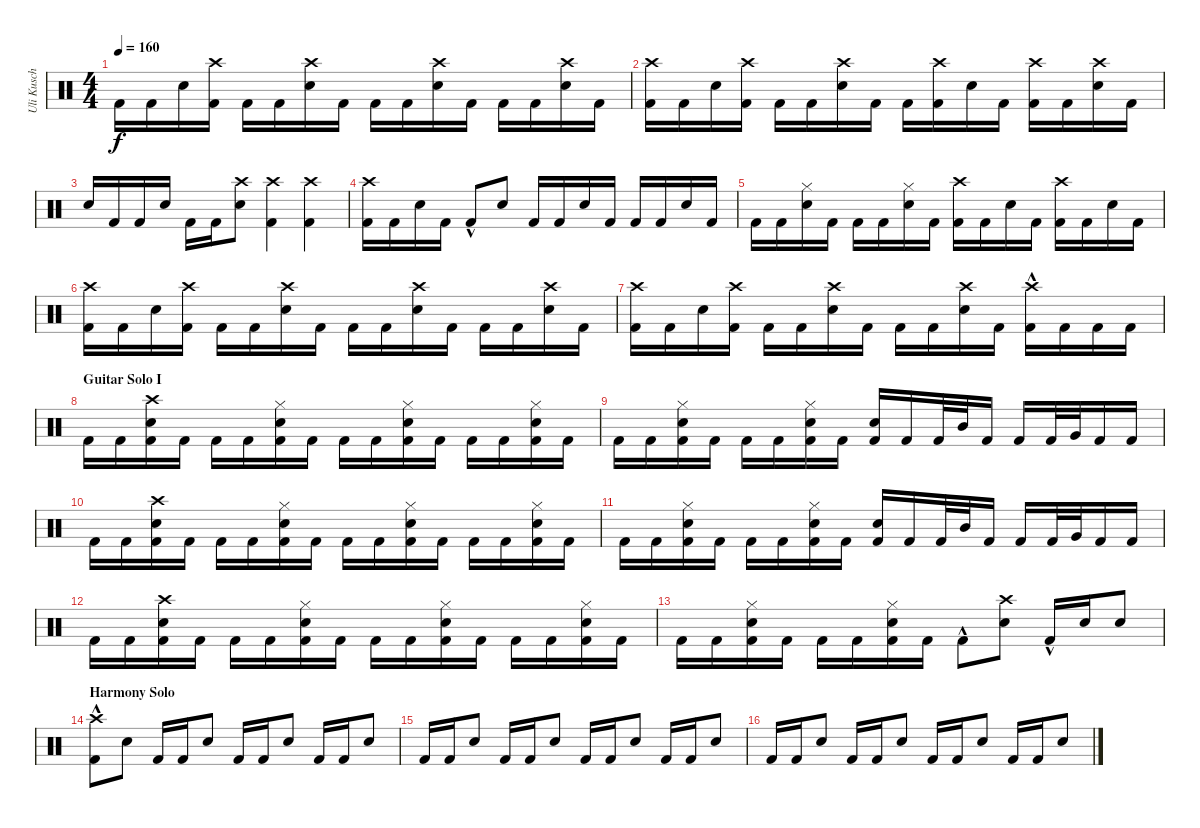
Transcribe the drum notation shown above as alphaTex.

\track ("Uli Kusch" "Uli Kusch") {instrument percussion}
\staff {score}
\articulation defaults
\ts (4 4)
\tempo 160
\clef neutral
\ks c "Kick (hit) 2".16{dy f} "Kick (hit) 2".16 "Snare (hit) 2".16
("Kick (hit) 2" "Crash high (hit)").16 "Kick (hit) 2".16 "Kick (hit) 2".16 ("Snare (hit) 2" "Crash high (hit)").16 "Kick (hit) 2".16 "Kick (hit) 2".16 "Kick (hit) 2".16 ("Snare (hit) 2" "Crash high (hit)").16 "Kick (hit) 2".16 "Kick (hit) 2".16 "Kick (hit) 2".16 ("Crash high (hit)" "Snare (hit) 2").16 "Kick (hit) 2".16 |
("Kick (hit) 2" "Crash high (hit)").16 "Kick (hit) 2".16 "Snare (hit) 2".16 ("Kick (hit) 2" "Crash high (hit)").16 "Kick (hit) 2".16 "Kick (hit) 2".16 ("Snare (hit) 2" "Crash high (hit)").16 "Kick (hit) 2".16 "Kick (hit) 2".16 ("Kick (hit) 2" "Crash high (hit)").16 "Snare (hit) 2".16 "Kick (hit) 2".16 ("Kick (hit) 2" "Crash high (hit)").16 "Kick (hit) 2".16 ("Crash high (hit)" "Snare (hit) 2").16 "Kick (hit) 2".16 |
"Snare (hit) 2".16 "Kick (hit) 2".16 "Kick (hit) 2".16 "Snare (hit) 2".16 "Kick (hit) 2".16 "Kick (hit) 2".16 ("Snare (hit) 2" "Crash high (hit)").8 ("Kick (hit) 2" "Crash high (hit)").4 ("Kick (hit) 2" "Crash high (hit)").4 |
("Kick (hit) 2" "Crash high (hit)").16 "Kick (hit) 2".16 "Snare (hit) 2".16 "Kick (hit) 2".16 "Kick (hit) 2"{hac}.8 "Snare (hit) 2".8 "Kick (hit) 2".16 "Kick (hit) 2".16 "Snare (hit) 2".16 "Kick (hit) 2".16 "Kick (hit) 2".16 "Kick (hit) 2".16 "Snare (hit) 2".16 "Kick (hit) 2".16 |
"Kick (hit) 2".16 "Kick (hit) 2".16 ("Snare (hit) 2" "Hi-Hat (closed)").16 "Kick (hit) 2".16 "Kick (hit) 2".16 "Kick (hit) 2".16 ("Snare (hit) 2" "Hi-Hat (closed)").16 "Kick (hit) 2".16 ("Kick (hit) 2" "Crash high (hit)").16 "Kick (hit) 2".16 "Snare (hit) 2".16 "Kick (hit) 2".16 ("Kick (hit) 2" "Crash high (hit)").16 "Kick (hit) 2".16 "Snare (hit) 2".16 "Kick (hit) 2".16 |
("Kick (hit) 2" "Crash high (hit)").16 "Kick (hit) 2".16 "Snare (hit) 2".16 ("Kick (hit) 2" "Crash high (hit)").16 "Kick (hit) 2".16 "Kick (hit) 2".16 ("Snare (hit) 2" "Crash high (hit)").16 "Kick (hit) 2".16 "Kick (hit) 2".16 "Kick (hit) 2".16 ("Snare (hit) 2" "Crash high (hit)").16 "Kick (hit) 2".16 "Kick (hit) 2".16 "Kick (hit) 2".16 ("Crash high (hit)" "Snare (hit) 2").16 "Kick (hit) 2".16 |
("Kick (hit) 2" "Crash high (hit)").16 "Kick (hit) 2".16 "Snare (hit) 2".16 ("Kick (hit) 2" "Crash high (hit)").16 "Kick (hit) 2".16 "Kick (hit) 2".16 ("Snare (hit) 2" "Crash high (hit)").16 "Kick (hit) 2".16 "Kick (hit) 2".16 "Kick (hit) 2".16 ("Snare (hit) 2" "Crash high (hit)").16 "Kick (hit) 2".16 ("Crash high (hit)"{hac} "Kick (hit) 2").16 "Kick (hit) 2".16 "Kick (hit) 2".16 "Kick (hit) 2".16 |
\section ("" "Guitar Solo I")
"Kick (hit) 2".16 "Kick (hit) 2".16 ("Kick (hit) 2" "Snare (hit) 2" "Crash high (hit)").16 "Kick (hit) 2".16 "Kick (hit) 2".16 "Kick (hit) 2".16 ("Kick (hit) 2" "Snare (hit) 2" "Hi-Hat (closed)").16 "Kick (hit) 2".16 "Kick (hit) 2".16 "Kick (hit) 2".16 ("Kick (hit) 2" "Hi-Hat (closed)" "Snare (hit) 2").16 "Kick (hit) 2".16 "Kick (hit) 2".16 "Kick (hit) 2".16 ("Kick (hit) 2" "Hi-Hat (closed)" "Snare (hit) 2").16 "Kick (hit) 2".16 |
"Kick (hit) 2".16 "Kick (hit) 2".16 ("Kick (hit) 2" "Snare (hit) 2" "Hi-Hat (closed)").16 "Kick (hit) 2".16 "Kick (hit) 2".16 "Kick (hit) 2".16 ("Kick (hit) 2" "Hi-Hat (closed)" "Snare (hit) 2").16 "Kick (hit) 2".16 ("Kick (hit) 2" "Snare (hit) 2").16 "Kick (hit) 2".16 "Kick (hit) 2".32 "Mid Tom (hit)".32 "Kick (hit) 2".16 "Kick (hit) 2".16 "Kick (hit) 2".32 "Very Low Tom (hit)".32 "Kick (hit) 2".16 "Kick (hit) 2".16 |
"Kick (hit) 2".16 "Kick (hit) 2".16 ("Kick (hit) 2" "Snare (hit) 2" "Crash high (hit)").16 "Kick (hit) 2".16 "Kick (hit) 2".16 "Kick (hit) 2".16 ("Kick (hit) 2" "Snare (hit) 2" "Hi-Hat (closed)").16 "Kick (hit) 2".16 "Kick (hit) 2".16 "Kick (hit) 2".16 ("Kick (hit) 2" "Hi-Hat (closed)" "Snare (hit) 2").16 "Kick (hit) 2".16 "Kick (hit) 2".16 "Kick (hit) 2".16 ("Kick (hit) 2" "Hi-Hat (closed)" "Snare (hit) 2").16 "Kick (hit) 2".16 |
"Kick (hit) 2".16 "Kick (hit) 2".16 ("Kick (hit) 2" "Snare (hit) 2" "Hi-Hat (closed)").16 "Kick (hit) 2".16 "Kick (hit) 2".16 "Kick (hit) 2".16 ("Kick (hit) 2" "Hi-Hat (closed)" "Snare (hit) 2").16 "Kick (hit) 2".16 ("Kick (hit) 2" "Snare (hit) 2").16 "Kick (hit) 2".16 "Kick (hit) 2".32 "Mid Tom (hit)".32 "Kick (hit) 2".16 "Kick (hit) 2".16 "Kick (hit) 2".32 "Very Low Tom (hit)".32 "Kick (hit) 2".16 "Kick (hit) 2".16 |
"Kick (hit) 2".16 "Kick (hit) 2".16 ("Kick (hit) 2" "Snare (hit) 2" "Crash high (hit)").16 "Kick (hit) 2".16 "Kick (hit) 2".16 "Kick (hit) 2".16 ("Kick (hit) 2" "Snare (hit) 2" "Hi-Hat (closed)").16 "Kick (hit) 2".16 "Kick (hit) 2".16 "Kick (hit) 2".16 ("Kick (hit) 2" "Hi-Hat (closed)" "Snare (hit) 2").16 "Kick (hit) 2".16 "Kick (hit) 2".16 "Kick (hit) 2".16 ("Kick (hit) 2" "Hi-Hat (closed)" "Snare (hit) 2").16 "Kick (hit) 2".16 |
"Kick (hit) 2".16 "Kick (hit) 2".16 ("Kick (hit) 2" "Snare (hit) 2" "Hi-Hat (closed)").16 "Kick (hit) 2".16 "Kick (hit) 2".16 "Kick (hit) 2".16 ("Kick (hit) 2" "Hi-Hat (closed)" "Snare (hit) 2").16 "Kick (hit) 2".16 "Kick (hit) 2"{hac}.8 ("Snare (hit) 2" "Crash high (hit)").8 "Kick (hit) 2"{hac}.16 "Snare (hit) 2".16 "Snare (hit) 2".8 |
\section ("" "Harmony Solo")
("Kick (hit) 2"{hac} "Crash high (hit)").8 "Snare (hit) 2".8 "Kick (hit) 2".16 "Kick (hit) 2".16 "Snare (hit) 2".8 "Kick (hit) 2".16 "Kick (hit) 2".16 "Snare (hit) 2".8 "Kick (hit) 2".16 "Kick (hit) 2".16 "Snare (hit) 2".8 |
"Kick (hit) 2".16 "Kick (hit) 2".16 "Snare (hit) 2".8 "Kick (hit) 2".16 "Kick (hit) 2".16 "Snare (hit) 2".8 "Kick (hit) 2".16 "Kick (hit) 2".16 "Snare (hit) 2".8 "Kick (hit) 2".16 "Kick (hit) 2".16 "Snare (hit) 2".8 |
"Kick (hit) 2".16 "Kick (hit) 2".16 "Snare (hit) 2".8 "Kick (hit) 2".16 "Kick (hit) 2".16 "Snare (hit) 2".8 "Kick (hit) 2".16 "Kick (hit) 2".16 "Snare (hit) 2".8 "Kick (hit) 2".16 "Kick (hit) 2".16 "Snare (hit) 2".8
